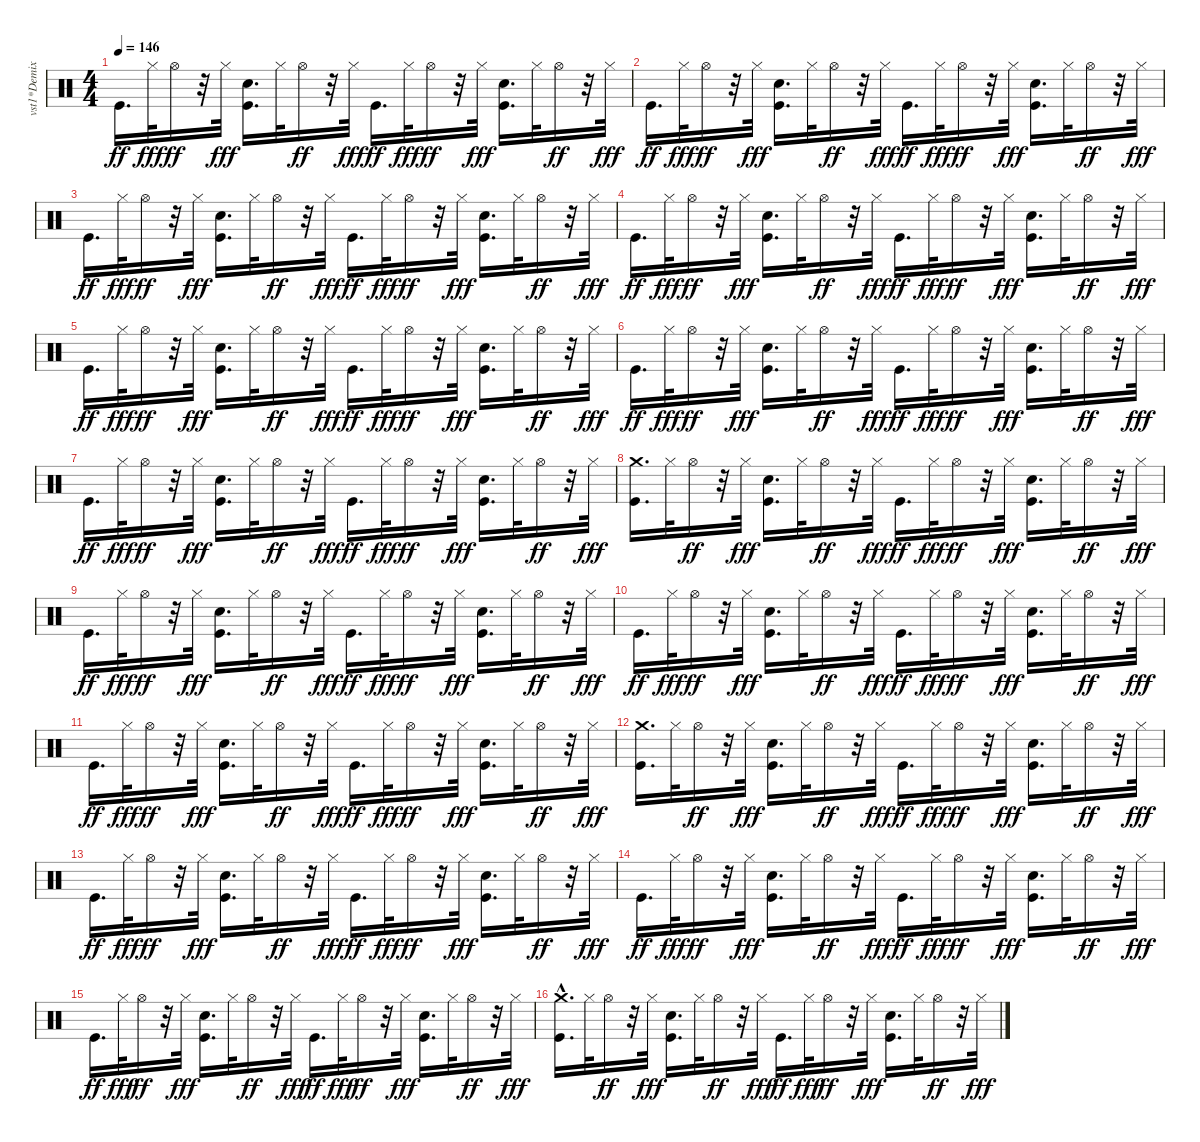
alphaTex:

\track ("vst1*Demixed 10" "vst1*Demix") {instrument percussion}
\staff {score}
\articulation defaults
\ts (4 4)
\tempo 146
\clef neutral
\ks c "Kick (hit)".16{d dy ff} "Hi-Hat (closed)".32{dy fff} "Hi-Hat (open)".16{dy ff}
r.32 "Hi-Hat (closed)".32{dy fff} ("Kick (hit)" "Hand Clap (hit)").16{d} "Hi-Hat (closed)".32 "Hi-Hat (open)".16{dy ff} r.32 "Hi-Hat (closed)".32{dy fff} "Kick (hit)".16{d dy ff} "Hi-Hat (closed)".32{dy fff} "Hi-Hat (open)".16{dy ff} r.32 "Hi-Hat (closed)".32{dy fff} ("Kick (hit)" "Hand Clap (hit)").16{d} "Hi-Hat (closed)".32 "Hi-Hat (open)".16{dy ff} r.32 "Hi-Hat (closed)".32{dy fff} |
"Kick (hit)".16{d dy ff} "Hi-Hat (closed)".32{dy fff} "Hi-Hat (open)".16{dy ff} r.32 "Hi-Hat (closed)".32{dy fff} ("Kick (hit)" "Hand Clap (hit)").16{d} "Hi-Hat (closed)".32 "Hi-Hat (open)".16{dy ff} r.32 "Hi-Hat (closed)".32{dy fff} "Kick (hit)".16{d dy ff} "Hi-Hat (closed)".32{dy fff} "Hi-Hat (open)".16{dy ff} r.32 "Hi-Hat (closed)".32{dy fff} ("Kick (hit)" "Hand Clap (hit)").16{d} "Hi-Hat (closed)".32 "Hi-Hat (open)".16{dy ff} r.32 "Hi-Hat (closed)".32{dy fff} |
"Kick (hit)".16{d dy ff} "Hi-Hat (closed)".32{dy fff} "Hi-Hat (open)".16{dy ff} r.32 "Hi-Hat (closed)".32{dy fff} ("Kick (hit)" "Hand Clap (hit)").16{d} "Hi-Hat (closed)".32 "Hi-Hat (open)".16{dy ff} r.32 "Hi-Hat (closed)".32{dy fff} "Kick (hit)".16{d dy ff} "Hi-Hat (closed)".32{dy fff} "Hi-Hat (open)".16{dy ff} r.32 "Hi-Hat (closed)".32{dy fff} ("Kick (hit)" "Hand Clap (hit)").16{d} "Hi-Hat (closed)".32 "Hi-Hat (open)".16{dy ff} r.32 "Hi-Hat (closed)".32{dy fff} |
"Kick (hit)".16{d dy ff} "Hi-Hat (closed)".32{dy fff} "Hi-Hat (open)".16{dy ff} r.32 "Hi-Hat (closed)".32{dy fff} ("Kick (hit)" "Hand Clap (hit)").16{d} "Hi-Hat (closed)".32 "Hi-Hat (open)".16{dy ff} r.32 "Hi-Hat (closed)".32{dy fff} "Kick (hit)".16{d dy ff} "Hi-Hat (closed)".32{dy fff} "Hi-Hat (open)".16{dy ff} r.32 "Hi-Hat (closed)".32{dy fff} ("Kick (hit)" "Hand Clap (hit)").16{d} "Hi-Hat (closed)".32 "Hi-Hat (open)".16{dy ff} r.32 "Hi-Hat (closed)".32{dy fff} |
"Kick (hit)".16{d dy ff} "Hi-Hat (closed)".32{dy fff} "Hi-Hat (open)".16{dy ff} r.32 "Hi-Hat (closed)".32{dy fff} ("Kick (hit)" "Hand Clap (hit)").16{d} "Hi-Hat (closed)".32 "Hi-Hat (open)".16{dy ff} r.32 "Hi-Hat (closed)".32{dy fff} "Kick (hit)".16{d dy ff} "Hi-Hat (closed)".32{dy fff} "Hi-Hat (open)".16{dy ff} r.32 "Hi-Hat (closed)".32{dy fff} ("Kick (hit)" "Hand Clap (hit)").16{d} "Hi-Hat (closed)".32 "Hi-Hat (open)".16{dy ff} r.32 "Hi-Hat (closed)".32{dy fff} |
"Kick (hit)".16{d dy ff} "Hi-Hat (closed)".32{dy fff} "Hi-Hat (open)".16{dy ff} r.32 "Hi-Hat (closed)".32{dy fff} ("Kick (hit)" "Hand Clap (hit)").16{d} "Hi-Hat (closed)".32 "Hi-Hat (open)".16{dy ff} r.32 "Hi-Hat (closed)".32{dy fff} "Kick (hit)".16{d dy ff} "Hi-Hat (closed)".32{dy fff} "Hi-Hat (open)".16{dy ff} r.32 "Hi-Hat (closed)".32{dy fff} ("Kick (hit)" "Hand Clap (hit)").16{d} "Hi-Hat (closed)".32 "Hi-Hat (open)".16{dy ff} r.32 "Hi-Hat (closed)".32{dy fff} |
"Kick (hit)".16{d dy ff} "Hi-Hat (closed)".32{dy fff} "Hi-Hat (open)".16{dy ff} r.32 "Hi-Hat (closed)".32{dy fff} ("Kick (hit)" "Hand Clap (hit)").16{d} "Hi-Hat (closed)".32 "Hi-Hat (open)".16{dy ff} r.32 "Hi-Hat (closed)".32{dy fff} "Kick (hit)".16{d dy ff} "Hi-Hat (closed)".32{dy fff} "Hi-Hat (open)".16{dy ff} r.32 "Hi-Hat (closed)".32{dy fff} ("Kick (hit)" "Hand Clap (hit)").16{d} "Hi-Hat (closed)".32 "Hi-Hat (open)".16{dy ff} r.32 "Hi-Hat (closed)".32{dy fff} |
("Kick (hit)" "Crash medium (hit)").16{d} "Hi-Hat (closed)".32 "Hi-Hat (open)".16{dy ff} r.32 "Hi-Hat (closed)".32{dy fff} ("Kick (hit)" "Hand Clap (hit)").16{d} "Hi-Hat (closed)".32 "Hi-Hat (open)".16{dy ff} r.32 "Hi-Hat (closed)".32{dy fff} "Kick (hit)".16{d dy ff} "Hi-Hat (closed)".32{dy fff} "Hi-Hat (open)".16{dy ff} r.32 "Hi-Hat (closed)".32{dy fff} ("Kick (hit)" "Hand Clap (hit)").16{d} "Hi-Hat (closed)".32 "Hi-Hat (open)".16{dy ff} r.32 "Hi-Hat (closed)".32{dy fff} |
"Kick (hit)".16{d dy ff} "Hi-Hat (closed)".32{dy fff} "Hi-Hat (open)".16{dy ff} r.32 "Hi-Hat (closed)".32{dy fff} ("Kick (hit)" "Hand Clap (hit)").16{d} "Hi-Hat (closed)".32 "Hi-Hat (open)".16{dy ff} r.32 "Hi-Hat (closed)".32{dy fff} "Kick (hit)".16{d dy ff} "Hi-Hat (closed)".32{dy fff} "Hi-Hat (open)".16{dy ff} r.32 "Hi-Hat (closed)".32{dy fff} ("Kick (hit)" "Hand Clap (hit)").16{d} "Hi-Hat (closed)".32 "Hi-Hat (open)".16{dy ff} r.32 "Hi-Hat (closed)".32{dy fff} |
"Kick (hit)".16{d dy ff} "Hi-Hat (closed)".32{dy fff} "Hi-Hat (open)".16{dy ff} r.32 "Hi-Hat (closed)".32{dy fff} ("Kick (hit)" "Hand Clap (hit)").16{d} "Hi-Hat (closed)".32 "Hi-Hat (open)".16{dy ff} r.32 "Hi-Hat (closed)".32{dy fff} "Kick (hit)".16{d dy ff} "Hi-Hat (closed)".32{dy fff} "Hi-Hat (open)".16{dy ff} r.32 "Hi-Hat (closed)".32{dy fff} ("Kick (hit)" "Hand Clap (hit)").16{d} "Hi-Hat (closed)".32 "Hi-Hat (open)".16{dy ff} r.32 "Hi-Hat (closed)".32{dy fff} |
"Kick (hit)".16{d dy ff} "Hi-Hat (closed)".32{dy fff} "Hi-Hat (open)".16{dy ff} r.32 "Hi-Hat (closed)".32{dy fff} ("Kick (hit)" "Hand Clap (hit)").16{d} "Hi-Hat (closed)".32 "Hi-Hat (open)".16{dy ff} r.32 "Hi-Hat (closed)".32{dy fff} "Kick (hit)".16{d dy ff} "Hi-Hat (closed)".32{dy fff} "Hi-Hat (open)".16{dy ff} r.32 "Hi-Hat (closed)".32{dy fff} ("Kick (hit)" "Hand Clap (hit)").16{d} "Hi-Hat (closed)".32 "Hi-Hat (open)".16{dy ff} r.32 "Hi-Hat (closed)".32{dy fff} |
("Kick (hit)" "Crash medium (hit)").16{d} "Hi-Hat (closed)".32 "Hi-Hat (open)".16{dy ff} r.32 "Hi-Hat (closed)".32{dy fff} ("Kick (hit)" "Hand Clap (hit)").16{d} "Hi-Hat (closed)".32 "Hi-Hat (open)".16{dy ff} r.32 "Hi-Hat (closed)".32{dy fff} "Kick (hit)".16{d dy ff} "Hi-Hat (closed)".32{dy fff} "Hi-Hat (open)".16{dy ff} r.32 "Hi-Hat (closed)".32{dy fff} ("Kick (hit)" "Hand Clap (hit)").16{d} "Hi-Hat (closed)".32 "Hi-Hat (open)".16{dy ff} r.32 "Hi-Hat (closed)".32{dy fff} |
"Kick (hit)".16{d dy ff} "Hi-Hat (closed)".32{dy fff} "Hi-Hat (open)".16{dy ff} r.32 "Hi-Hat (closed)".32{dy fff} ("Kick (hit)" "Hand Clap (hit)").16{d} "Hi-Hat (closed)".32 "Hi-Hat (open)".16{dy ff} r.32 "Hi-Hat (closed)".32{dy fff} "Kick (hit)".16{d dy ff} "Hi-Hat (closed)".32{dy fff} "Hi-Hat (open)".16{dy ff} r.32 "Hi-Hat (closed)".32{dy fff} ("Kick (hit)" "Hand Clap (hit)").16{d} "Hi-Hat (closed)".32 "Hi-Hat (open)".16{dy ff} r.32 "Hi-Hat (closed)".32{dy fff} |
"Kick (hit)".16{d dy ff} "Hi-Hat (closed)".32{dy fff} "Hi-Hat (open)".16{dy ff} r.32 "Hi-Hat (closed)".32{dy fff} ("Kick (hit)" "Hand Clap (hit)").16{d} "Hi-Hat (closed)".32 "Hi-Hat (open)".16{dy ff} r.32 "Hi-Hat (closed)".32{dy fff} "Kick (hit)".16{d dy ff} "Hi-Hat (closed)".32{dy fff} "Hi-Hat (open)".16{dy ff} r.32 "Hi-Hat (closed)".32{dy fff} ("Kick (hit)" "Hand Clap (hit)").16{d} "Hi-Hat (closed)".32 "Hi-Hat (open)".16{dy ff} r.32 "Hi-Hat (closed)".32{dy fff} |
"Kick (hit)".16{d dy ff} "Hi-Hat (closed)".32{dy fff} "Hi-Hat (open)".16{dy ff} r.32 "Hi-Hat (closed)".32{dy fff} ("Kick (hit)" "Hand Clap (hit)").16{d} "Hi-Hat (closed)".32 "Hi-Hat (open)".16{dy ff} r.32 "Hi-Hat (closed)".32{dy fff} "Kick (hit)".16{d dy ff} "Hi-Hat (closed)".32{dy fff} "Hi-Hat (open)".16{dy ff} r.32 "Hi-Hat (closed)".32{dy fff} ("Kick (hit)" "Hand Clap (hit)").16{d} "Hi-Hat (closed)".32 "Hi-Hat (open)".16{dy ff} r.32 "Hi-Hat (closed)".32{dy fff} |
("Kick (hit)" "Crash medium (hit)"{hac}).16{d} "Hi-Hat (closed)".32 "Hi-Hat (open)".16{dy ff} r.32 "Hi-Hat (closed)".32{dy fff} ("Kick (hit)" "Hand Clap (hit)").16{d} "Hi-Hat (closed)".32 "Hi-Hat (open)".16{dy ff} r.32 "Hi-Hat (closed)".32{dy fff} "Kick (hit)".16{d dy ff} "Hi-Hat (closed)".32{dy fff} "Hi-Hat (open)".16{dy ff} r.32 "Hi-Hat (closed)".32{dy fff} ("Kick (hit)" "Hand Clap (hit)").16{d} "Hi-Hat (closed)".32 "Hi-Hat (open)".16{dy ff} r.32 "Hi-Hat (closed)".32{dy fff}
